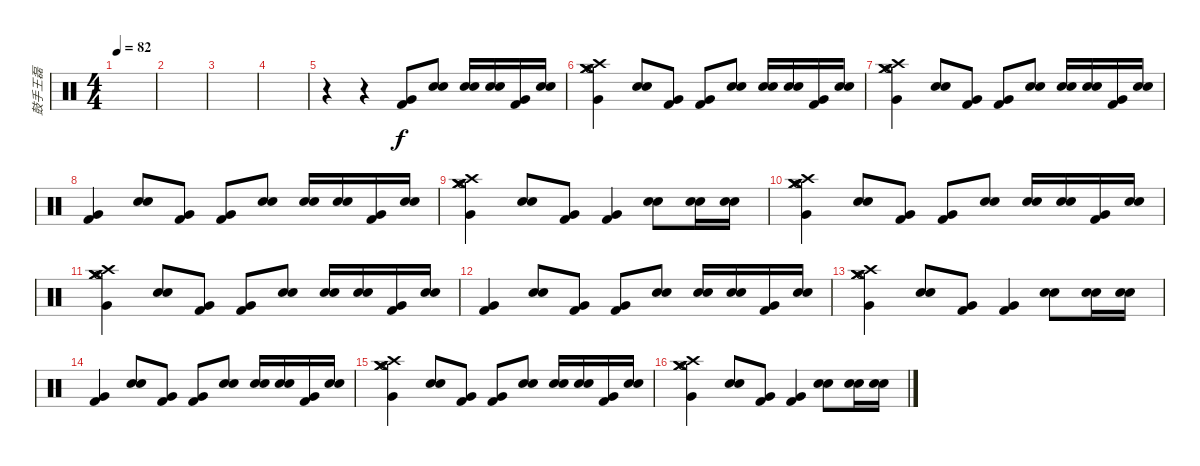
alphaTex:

\track ("鼓手王磊" "鼓手王磊") {instrument percussion}
\staff {score}
\articulation defaults
\ts (4 4)
\tempo 82
\clef neutral
\ks c
|
|
|
|
r.4 r.4 ("Very Low Tom (hit)" "Kick (hit) 2").8 ("Electric Snare (hit)" "Electric Snare (hit)").8 ("Electric Snare (hit)" "Electric Snare (hit)").16 ("Electric Snare (hit)" "Electric Snare (hit)").16 ("Very Low Tom (hit)" "Kick (hit) 2").16 ("Electric Snare (hit)" "Electric Snare (hit)").16 |
("Crash medium (hit)" "Crash medium (hit)" "Very Low Tom (hit)" "Crash high (hit)" "Hi-Hat (open)" "Hi-Hat (open)").4 ("Electric Snare (hit)" "Electric Snare (hit)").8 ("Very Low Tom (hit)" "Kick (hit) 2").8 ("Very Low Tom (hit)" "Kick (hit) 2").8 ("Electric Snare (hit)" "Electric Snare (hit)").8 ("Electric Snare (hit)" "Electric Snare (hit)").16 ("Electric Snare (hit)" "Electric Snare (hit)").16 ("Very Low Tom (hit)" "Kick (hit) 2").16 ("Electric Snare (hit)" "Electric Snare (hit)").16 |
("Crash medium (hit)" "Crash medium (hit)" "Very Low Tom (hit)" "Crash high (hit)" "Hi-Hat (open)" "Hi-Hat (open)").4 ("Electric Snare (hit)" "Electric Snare (hit)").8 ("Very Low Tom (hit)" "Kick (hit) 2").8 ("Very Low Tom (hit)" "Kick (hit) 2").8 ("Electric Snare (hit)" "Electric Snare (hit)").8 ("Electric Snare (hit)" "Electric Snare (hit)").16 ("Electric Snare (hit)" "Electric Snare (hit)").16 ("Very Low Tom (hit)" "Kick (hit) 2").16 ("Electric Snare (hit)" "Electric Snare (hit)").16 |
("Very Low Tom (hit)" "Kick (hit) 2").4 ("Electric Snare (hit)" "Electric Snare (hit)").8 ("Very Low Tom (hit)" "Kick (hit) 2").8 ("Very Low Tom (hit)" "Kick (hit) 2").8 ("Electric Snare (hit)" "Electric Snare (hit)").8 ("Electric Snare (hit)" "Electric Snare (hit)").16 ("Electric Snare (hit)" "Electric Snare (hit)").16 ("Very Low Tom (hit)" "Kick (hit) 2").16 ("Electric Snare (hit)" "Electric Snare (hit)").16 |
("Crash medium (hit)" "Crash medium (hit)" "Very Low Tom (hit)" "Crash high (hit)" "Hi-Hat (open)" "Hi-Hat (open)").4 ("Electric Snare (hit)" "Electric Snare (hit)").8 ("Very Low Tom (hit)" "Kick (hit) 2").8 ("Very Low Tom (hit)" "Kick (hit) 2").4 ("Electric Snare (hit)" "Electric Snare (hit)").8 ("Electric Snare (hit)" "Electric Snare (hit)").16 ("Electric Snare (hit)" "Electric Snare (hit)").16 |
("Crash medium (hit)" "Crash medium (hit)" "Very Low Tom (hit)" "Crash high (hit)" "Hi-Hat (open)" "Hi-Hat (open)").4 ("Electric Snare (hit)" "Electric Snare (hit)").8 ("Very Low Tom (hit)" "Kick (hit) 2").8 ("Very Low Tom (hit)" "Kick (hit) 2").8 ("Electric Snare (hit)" "Electric Snare (hit)").8 ("Electric Snare (hit)" "Electric Snare (hit)").16 ("Electric Snare (hit)" "Electric Snare (hit)").16 ("Very Low Tom (hit)" "Kick (hit) 2").16 ("Electric Snare (hit)" "Electric Snare (hit)").16 |
("Crash medium (hit)" "Crash medium (hit)" "Very Low Tom (hit)" "Crash high (hit)" "Hi-Hat (open)" "Hi-Hat (open)").4 ("Electric Snare (hit)" "Electric Snare (hit)").8 ("Very Low Tom (hit)" "Kick (hit) 2").8 ("Very Low Tom (hit)" "Kick (hit) 2").8 ("Electric Snare (hit)" "Electric Snare (hit)").8 ("Electric Snare (hit)" "Electric Snare (hit)").16 ("Electric Snare (hit)" "Electric Snare (hit)").16 ("Very Low Tom (hit)" "Kick (hit) 2").16 ("Electric Snare (hit)" "Electric Snare (hit)").16 |
("Very Low Tom (hit)" "Kick (hit) 2").4 ("Electric Snare (hit)" "Electric Snare (hit)").8 ("Very Low Tom (hit)" "Kick (hit) 2").8 ("Very Low Tom (hit)" "Kick (hit) 2").8 ("Electric Snare (hit)" "Electric Snare (hit)").8 ("Electric Snare (hit)" "Electric Snare (hit)").16 ("Electric Snare (hit)" "Electric Snare (hit)").16 ("Very Low Tom (hit)" "Kick (hit) 2").16 ("Electric Snare (hit)" "Electric Snare (hit)").16 |
("Crash medium (hit)" "Crash medium (hit)" "Very Low Tom (hit)" "Crash high (hit)" "Hi-Hat (open)" "Hi-Hat (open)").4 ("Electric Snare (hit)" "Electric Snare (hit)").8 ("Very Low Tom (hit)" "Kick (hit) 2").8 ("Very Low Tom (hit)" "Kick (hit) 2").4 ("Electric Snare (hit)" "Electric Snare (hit)").8 ("Electric Snare (hit)" "Electric Snare (hit)").16 ("Electric Snare (hit)" "Electric Snare (hit)").16 |
("Very Low Tom (hit)" "Kick (hit) 2").4 ("Electric Snare (hit)" "Electric Snare (hit)").8 ("Very Low Tom (hit)" "Kick (hit) 2").8 ("Very Low Tom (hit)" "Kick (hit) 2").8 ("Electric Snare (hit)" "Electric Snare (hit)").8 ("Electric Snare (hit)" "Electric Snare (hit)").16 ("Electric Snare (hit)" "Electric Snare (hit)").16 ("Very Low Tom (hit)" "Kick (hit) 2").16 ("Electric Snare (hit)" "Electric Snare (hit)").16 |
("Crash medium (hit)" "Crash medium (hit)" "Very Low Tom (hit)" "Crash high (hit)" "Hi-Hat (open)" "Hi-Hat (open)").4 ("Electric Snare (hit)" "Electric Snare (hit)").8 ("Very Low Tom (hit)" "Kick (hit) 2").8 ("Very Low Tom (hit)" "Kick (hit) 2").8 ("Electric Snare (hit)" "Electric Snare (hit)").8 ("Electric Snare (hit)" "Electric Snare (hit)").16 ("Electric Snare (hit)" "Electric Snare (hit)").16 ("Very Low Tom (hit)" "Kick (hit) 2").16 ("Electric Snare (hit)" "Electric Snare (hit)").16 |
("Crash medium (hit)" "Crash medium (hit)" "Very Low Tom (hit)" "Crash high (hit)" "Hi-Hat (open)" "Hi-Hat (open)").4 ("Electric Snare (hit)" "Electric Snare (hit)").8 ("Very Low Tom (hit)" "Kick (hit) 2").8 ("Very Low Tom (hit)" "Kick (hit) 2").4 ("Electric Snare (hit)" "Electric Snare (hit)").8 ("Electric Snare (hit)" "Electric Snare (hit)").16 ("Electric Snare (hit)" "Electric Snare (hit)").16
